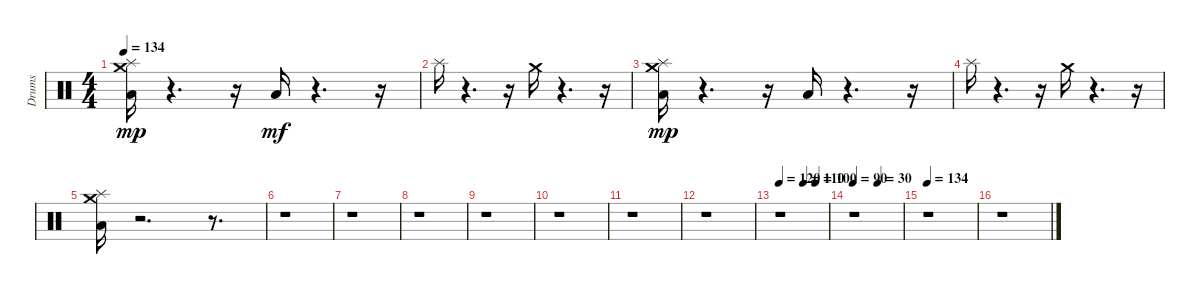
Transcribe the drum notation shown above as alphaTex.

\track ("Drums" "Drums") {instrument percussion}
\staff {score}
\articulation defaults
\ts (4 4)
\tempo 134
\clef neutral
\ks c
("Crash medium (hit)" "Splash (hit)" "Low Floor Tom (hit)").16{dy mp} r.4{d} r.16 "Low Floor Tom (hit)".16{dy mf} r.4{d} r.16 |
"Splash (hit)".16 r.4{d} r.16 "Crash medium (hit)".16 r.4{d} r.16 |
("Crash medium (hit)" "Splash (hit)" "Low Floor Tom (hit)").16{dy mp} r.4{d} r.16 "Low Floor Tom (hit)".16 r.4{d} r.16 |
"Splash (hit)".16 r.4{d} r.16 "Crash medium (hit)".16 r.4{d} r.16 |
("Crash medium (hit)" "Splash (hit)" "Low Floor Tom (hit)").16 r.2{d} r.8{d} |
r.1 |
r.1 |
r.1 |
r.1 |
r.1 |
r.1 |
r.1 |
\tempo 120
\tempo (110 0.5)
\tempo (100 0.75)
r.1 |
\tempo 90
\tempo (30 0.5)
r.1 |
\tempo 134
r.1 |
r.1
